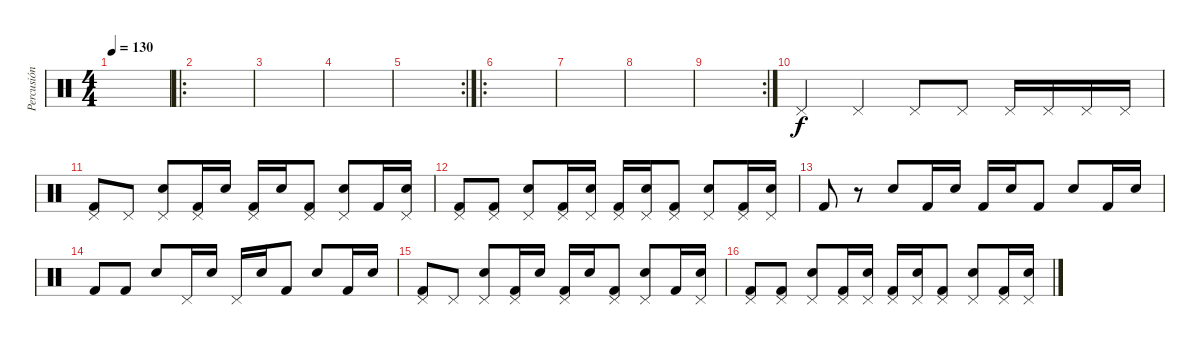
\track ("Percusión" "Percusión") {instrument percussion}
\staff {score}
\articulation defaults
\ts (4 4)
\tempo 130
\clef neutral
\ks c
|
\ro
|
|
|
\rc 2
|
\ro
|
|
|
\rc 2
|
"Pedal Hi-Hat (hit)".4 "Pedal Hi-Hat (hit)".4 "Pedal Hi-Hat (hit)".8 "Pedal Hi-Hat (hit)".8 "Pedal Hi-Hat (hit)".16 "Pedal Hi-Hat (hit)".16 "Pedal Hi-Hat (hit)".16 "Pedal Hi-Hat (hit)".16 |
("Kick (hit) 2" "Pedal Hi-Hat (hit)").8 "Pedal Hi-Hat (hit)".8 ("Electric Snare (hit)" "Pedal Hi-Hat (hit)").8 ("Kick (hit) 2" "Pedal Hi-Hat (hit)").16 "Electric Snare (hit)".16 ("Kick (hit) 2" "Pedal Hi-Hat (hit)").16 "Electric Snare (hit)".16 ("Kick (hit) 2" "Pedal Hi-Hat (hit)").8 ("Electric Snare (hit)" "Pedal Hi-Hat (hit)").8 "Kick (hit) 2".16 ("Electric Snare (hit)" "Pedal Hi-Hat (hit)").16 |
("Kick (hit) 2" "Pedal Hi-Hat (hit)").8 ("Kick (hit) 2" "Pedal Hi-Hat (hit)").8 ("Electric Snare (hit)" "Pedal Hi-Hat (hit)").8 ("Kick (hit) 2" "Pedal Hi-Hat (hit)").16 ("Electric Snare (hit)" "Pedal Hi-Hat (hit)").16 ("Kick (hit) 2" "Pedal Hi-Hat (hit)").16 ("Electric Snare (hit)" "Pedal Hi-Hat (hit)").16 ("Kick (hit) 2" "Pedal Hi-Hat (hit)").8 ("Electric Snare (hit)" "Pedal Hi-Hat (hit)").8 ("Kick (hit) 2" "Pedal Hi-Hat (hit)").16 ("Electric Snare (hit)" "Pedal Hi-Hat (hit)").16 |
"Kick (hit) 2".8 r.8 "Electric Snare (hit)".8 "Kick (hit) 2".16 "Electric Snare (hit)".16 "Kick (hit) 2".16 "Electric Snare (hit)".16 "Kick (hit) 2".8 "Electric Snare (hit)".8 "Kick (hit) 2".16 "Electric Snare (hit)".16 |
"Kick (hit) 2".8 "Kick (hit) 2".8 "Electric Snare (hit)".8 "Pedal Hi-Hat (hit)".16 "Electric Snare (hit)".16 "Pedal Hi-Hat (hit)".16 "Electric Snare (hit)".16 "Kick (hit) 2".8 "Electric Snare (hit)".8 "Kick (hit) 2".16 "Electric Snare (hit)".16 |
("Kick (hit) 2" "Pedal Hi-Hat (hit)").8 "Pedal Hi-Hat (hit)".8 ("Electric Snare (hit)" "Pedal Hi-Hat (hit)").8 ("Kick (hit) 2" "Pedal Hi-Hat (hit)").16 "Electric Snare (hit)".16 ("Kick (hit) 2" "Pedal Hi-Hat (hit)").16 "Electric Snare (hit)".16 ("Kick (hit) 2" "Pedal Hi-Hat (hit)").8 ("Electric Snare (hit)" "Pedal Hi-Hat (hit)").8 "Kick (hit) 2".16 ("Electric Snare (hit)" "Pedal Hi-Hat (hit)").16 |
("Kick (hit) 2" "Pedal Hi-Hat (hit)").8 ("Kick (hit) 2" "Pedal Hi-Hat (hit)").8 ("Electric Snare (hit)" "Pedal Hi-Hat (hit)").8 ("Kick (hit) 2" "Pedal Hi-Hat (hit)").16 ("Electric Snare (hit)" "Pedal Hi-Hat (hit)").16 ("Kick (hit) 2" "Pedal Hi-Hat (hit)").16 ("Electric Snare (hit)" "Pedal Hi-Hat (hit)").16 ("Kick (hit) 2" "Pedal Hi-Hat (hit)").8 ("Electric Snare (hit)" "Pedal Hi-Hat (hit)").8 ("Kick (hit) 2" "Pedal Hi-Hat (hit)").16 ("Electric Snare (hit)" "Pedal Hi-Hat (hit)").16
